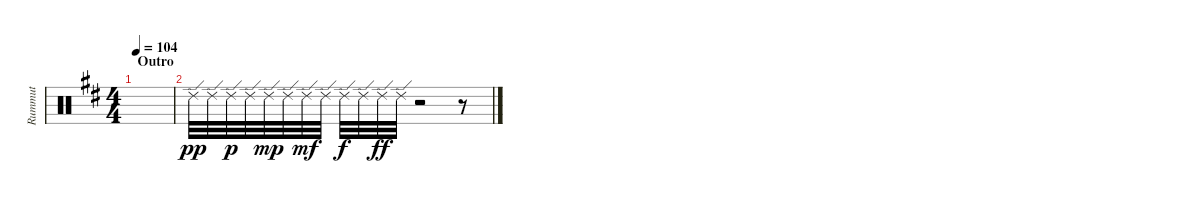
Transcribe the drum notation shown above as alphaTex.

\track ("Rummut" "Rummut") {instrument percussion}
\staff {score}
\articulation defaults
\ts (4 4)
\section ("" "Outro")
\tempo 104
\clef neutral
\ks d
|
"Ride (edge) 2".32{dy pp} "Ride (edge) 2".32 "Ride (edge) 2".32{dy p} "Ride (edge) 2".32 "Ride (edge) 2".32{dy mp} "Ride (edge) 2".32 "Ride (edge) 2".32{dy mf} "Ride (edge) 2".32 "Ride (edge) 2".32{dy f} "Ride (edge) 2".32 "Ride (edge) 2".32{dy ff} "Ride (edge) 2".32 r.2 r.8
